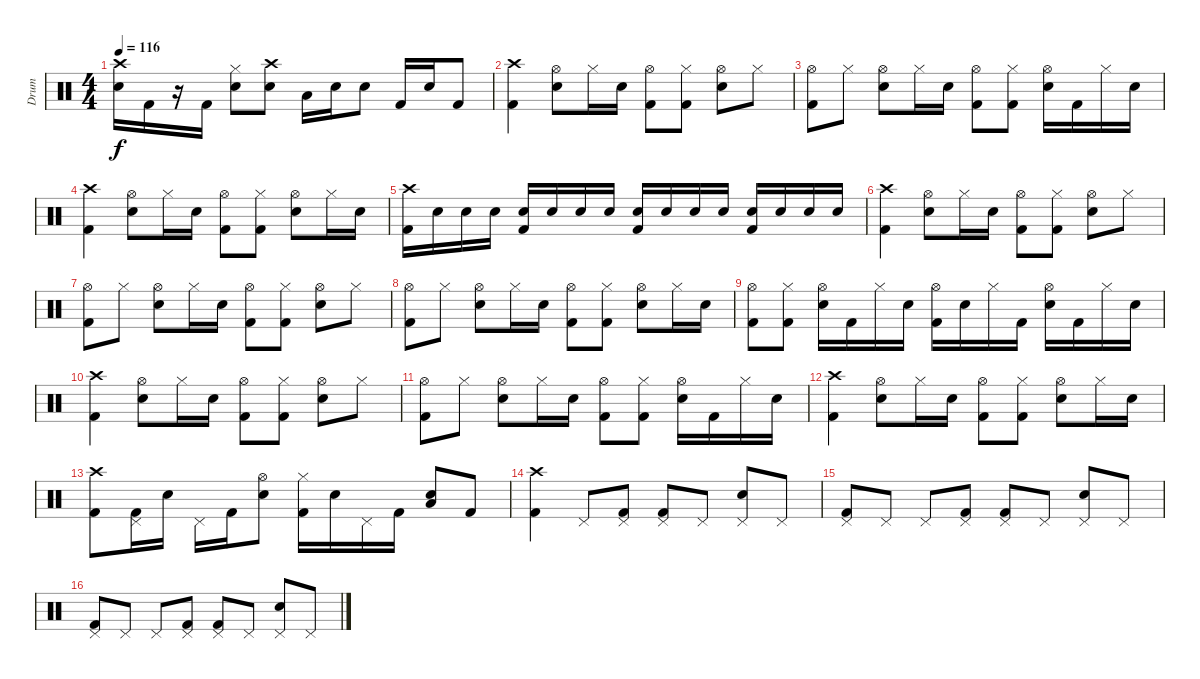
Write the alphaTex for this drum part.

\track ("Drum" "Drum") {instrument percussion}
\staff {score}
\articulation defaults
\ts (4 4)
\tempo 116
\clef neutral
\ks c
("Crash high (hit)" "Electric Snare (hit)").16{dy f} "Kick (hit) 2".16 r.16 "Kick (hit) 2".16 ("Hi-Hat (closed)" "Electric Snare (hit)").8 ("Crash high (hit)" "Electric Snare (hit)").8 "Low Tom (hit)".16 "Electric Snare (hit)".16 "Electric Snare (hit)".8 "Kick (hit) 2".16 "Electric Snare (hit)".16 "Kick (hit) 2".8 |
("Crash high (hit)" "Kick (hit) 2").4 ("Hi-Hat (open)" "Electric Snare (hit)").8 "Hi-Hat (closed)".16 "Electric Snare (hit)".16 ("Hi-Hat (open)" "Kick (hit) 2").8 ("Hi-Hat (closed)" "Kick (hit) 2").8 ("Hi-Hat (open)" "Electric Snare (hit)").8 "Hi-Hat (closed)".8 |
("Hi-Hat (open)" "Kick (hit) 2").8 "Hi-Hat (closed)".8 ("Hi-Hat (open)" "Electric Snare (hit)").8 "Hi-Hat (closed)".16 "Electric Snare (hit)".16 ("Hi-Hat (open)" "Kick (hit) 2").8 ("Hi-Hat (closed)" "Kick (hit) 2").8 ("Hi-Hat (open)" "Electric Snare (hit)").16 "Kick (hit) 2".16 "Hi-Hat (closed)".16 "Electric Snare (hit)".16 |
("Crash high (hit)" "Kick (hit) 2").4 ("Hi-Hat (open)" "Electric Snare (hit)").8 "Hi-Hat (closed)".16 "Electric Snare (hit)".16 ("Hi-Hat (open)" "Kick (hit) 2").8 ("Hi-Hat (closed)" "Kick (hit) 2").8 ("Hi-Hat (open)" "Electric Snare (hit)").8 "Hi-Hat (closed)".16 "Electric Snare (hit)".16 |
("Crash high (hit)" "Kick (hit) 2").16 "Electric Snare (hit)".16 "Electric Snare (hit)".16 "Electric Snare (hit)".16 ("Electric Snare (hit)" "Kick (hit) 2").16 "Electric Snare (hit)".16 "Electric Snare (hit)".16 "Electric Snare (hit)".16 ("Electric Snare (hit)" "Kick (hit) 2").16 "Electric Snare (hit)".16 "Electric Snare (hit)".16 "Electric Snare (hit)".16 ("Electric Snare (hit)" "Kick (hit) 2").16 "Electric Snare (hit)".16 "Electric Snare (hit)".16 "Electric Snare (hit)".16 |
("Crash high (hit)" "Kick (hit) 2").4 ("Hi-Hat (open)" "Electric Snare (hit)").8 "Hi-Hat (closed)".16 "Electric Snare (hit)".16 ("Hi-Hat (open)" "Kick (hit) 2").8 ("Hi-Hat (closed)" "Kick (hit) 2").8 ("Hi-Hat (open)" "Electric Snare (hit)").8 "Hi-Hat (closed)".8 |
("Hi-Hat (open)" "Kick (hit) 2").8 "Hi-Hat (closed)".8 ("Hi-Hat (open)" "Electric Snare (hit)").8 "Hi-Hat (closed)".16 "Electric Snare (hit)".16 ("Hi-Hat (open)" "Kick (hit) 2").8 ("Hi-Hat (closed)" "Kick (hit) 2").8 ("Hi-Hat (open)" "Electric Snare (hit)").8 "Hi-Hat (closed)".8 |
("Hi-Hat (open)" "Kick (hit) 2").8 "Hi-Hat (closed)".8 ("Hi-Hat (open)" "Electric Snare (hit)").8 "Hi-Hat (closed)".16 "Electric Snare (hit)".16 ("Hi-Hat (open)" "Kick (hit) 2").8 ("Hi-Hat (closed)" "Kick (hit) 2").8 ("Hi-Hat (open)" "Electric Snare (hit)").8 "Hi-Hat (closed)".16 "Electric Snare (hit)".16 |
("Hi-Hat (open)" "Kick (hit) 2").8 ("Hi-Hat (closed)" "Kick (hit) 2").8 ("Hi-Hat (open)" "Electric Snare (hit)").16 "Kick (hit) 2".16 "Hi-Hat (closed)".16 "Electric Snare (hit)".16 ("Hi-Hat (open)" "Kick (hit) 2").16 "Electric Snare (hit)".16 "Hi-Hat (closed)".16 "Kick (hit) 2".16 ("Hi-Hat (open)" "Electric Snare (hit)").16 "Kick (hit) 2".16 "Hi-Hat (closed)".16 "Electric Snare (hit)".16 |
("Crash high (hit)" "Kick (hit) 2").4 ("Hi-Hat (open)" "Electric Snare (hit)").8 "Hi-Hat (closed)".16 "Electric Snare (hit)".16 ("Hi-Hat (open)" "Kick (hit) 2").8 ("Hi-Hat (closed)" "Kick (hit) 2").8 ("Hi-Hat (open)" "Electric Snare (hit)").8 "Hi-Hat (closed)".8 |
("Hi-Hat (open)" "Kick (hit) 2").8 "Hi-Hat (closed)".8 ("Hi-Hat (open)" "Electric Snare (hit)").8 "Hi-Hat (closed)".16 "Electric Snare (hit)".16 ("Hi-Hat (open)" "Kick (hit) 2").8 ("Hi-Hat (closed)" "Kick (hit) 2").8 ("Hi-Hat (open)" "Electric Snare (hit)").16 "Kick (hit) 2".16 "Hi-Hat (closed)".16 "Electric Snare (hit)".16 |
("Crash high (hit)" "Kick (hit) 2").4 ("Hi-Hat (open)" "Electric Snare (hit)").8 "Hi-Hat (closed)".16 "Electric Snare (hit)".16 ("Hi-Hat (open)" "Kick (hit) 2").8 ("Hi-Hat (closed)" "Kick (hit) 2").8 ("Hi-Hat (open)" "Electric Snare (hit)").8 "Hi-Hat (closed)".16 "Electric Snare (hit)".16 |
("Crash high (hit)" "Kick (hit) 2").8 ("Pedal Hi-Hat (hit)" "Kick (hit) 2").16 "Electric Snare (hit)".16 "Pedal Hi-Hat (hit)".16 "Kick (hit) 2".16 ("Hi-Hat (open)" "Electric Snare (hit)").8 ("Hi-Hat (closed)" "Kick (hit) 2").16 "Electric Snare (hit)".16 "Pedal Hi-Hat (hit)".16 "Kick (hit) 2".16 ("Low Tom (hit)" "Electric Snare (hit)").8 "Kick (hit) 2".8 |
("Crash high (hit)" "Kick (hit) 2").4 "Pedal Hi-Hat (hit)".8 ("Pedal Hi-Hat (hit)" "Kick (hit) 2").8 ("Pedal Hi-Hat (hit)" "Kick (hit) 2").8 "Pedal Hi-Hat (hit)".8 ("Pedal Hi-Hat (hit)" "Electric Snare (hit)").8 "Pedal Hi-Hat (hit)".8 |
("Pedal Hi-Hat (hit)" "Kick (hit) 2").8 "Pedal Hi-Hat (hit)".8 "Pedal Hi-Hat (hit)".8 ("Pedal Hi-Hat (hit)" "Kick (hit) 2").8 ("Pedal Hi-Hat (hit)" "Kick (hit) 2").8 "Pedal Hi-Hat (hit)".8 ("Pedal Hi-Hat (hit)" "Electric Snare (hit)").8 "Pedal Hi-Hat (hit)".8 |
("Pedal Hi-Hat (hit)" "Kick (hit) 2").8 "Pedal Hi-Hat (hit)".8 "Pedal Hi-Hat (hit)".8 ("Pedal Hi-Hat (hit)" "Kick (hit) 2").8 ("Pedal Hi-Hat (hit)" "Kick (hit) 2").8 "Pedal Hi-Hat (hit)".8 ("Pedal Hi-Hat (hit)" "Electric Snare (hit)").8 "Pedal Hi-Hat (hit)".8
